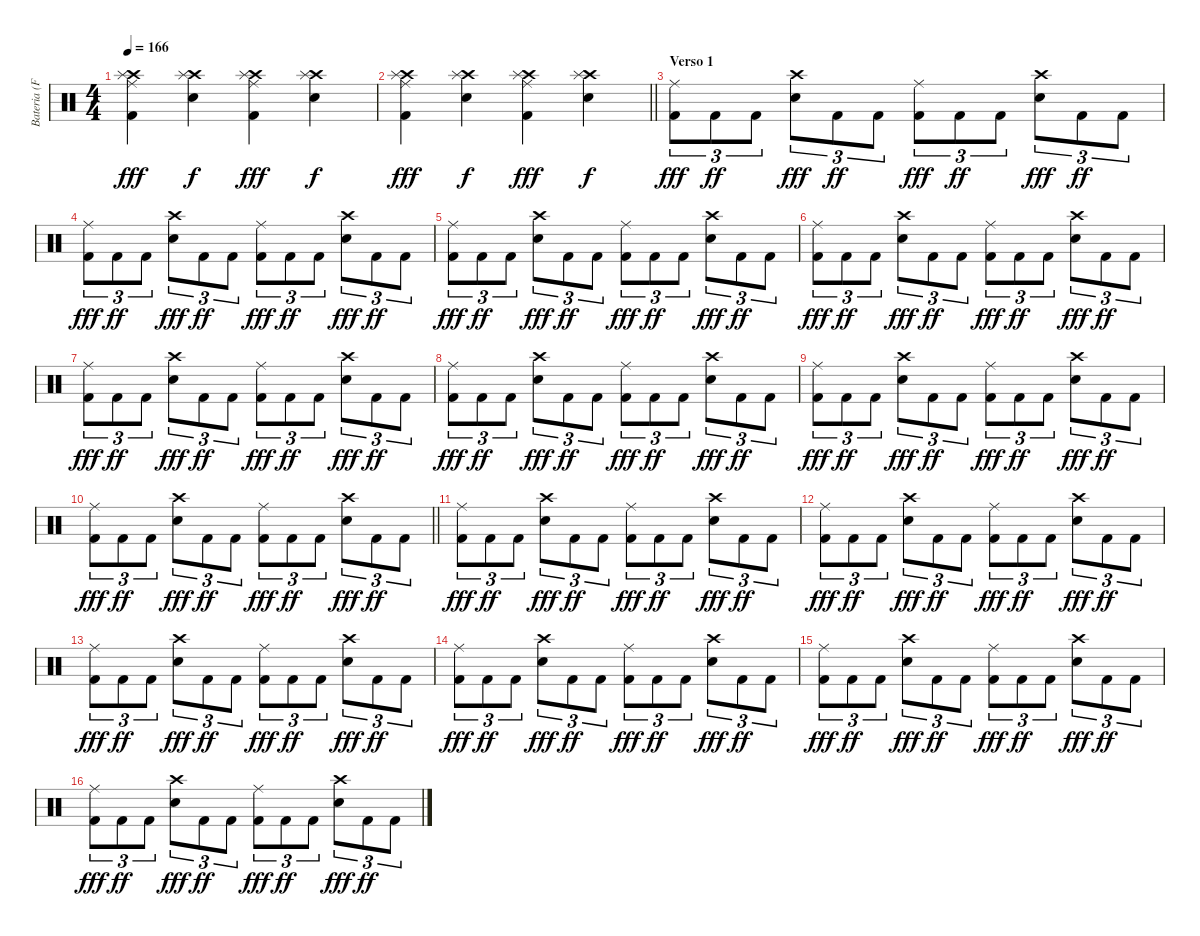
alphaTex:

\track ("Bateria (Fernando Scarcella)" "Bateria (F") {instrument percussion}
\staff {score}
\articulation defaults
\ts (4 4)
\tempo 166
\clef neutral
\ks c
("Crash high (hit)" "Splash (hit)" "Kick (hit) 2" "Ride (middle)").4{dy fff} ("Crash high (hit)" "Splash (hit)" "Snare (hit) 2").4{dy f} ("Crash high (hit)" "Splash (hit)" "Kick (hit) 2" "Ride (middle)").4{dy fff} ("Crash high (hit)" "Splash (hit)" "Snare (hit) 2").4{dy f} |
\barLineRight lightlight
("Crash high (hit)" "Splash (hit)" "Kick (hit) 2" "Ride (middle)").4{dy fff} ("Crash high (hit)" "Splash (hit)" "Snare (hit) 2").4{dy f} ("Crash high (hit)" "Splash (hit)" "Kick (hit) 2" "Ride (middle)").4{dy fff} ("Crash high (hit)" "Splash (hit)" "Snare (hit) 2").4{dy f} |
\section ("" "Verso 1")
("Kick (hit) 2" "Ride (middle)").8{tu (3 2) dy fff} "Kick (hit) 2".8{tu (3 2) dy ff} "Kick (hit) 2".8{tu (3 2)} ("Electric Snare (hit)" "Crash high (hit)").8{tu (3 2) dy fff} "Kick (hit) 2".8{tu (3 2) dy ff} "Kick (hit) 2".8{tu (3 2)} ("Kick (hit) 2" "Ride (middle)").8{tu (3 2) dy fff} "Kick (hit) 2".8{tu (3 2) dy ff} "Kick (hit) 2".8{tu (3 2)} ("Electric Snare (hit)" "Crash high (hit)").8{tu (3 2) dy fff} "Kick (hit) 2".8{tu (3 2) dy ff} "Kick (hit) 2".8{tu (3 2)} |
("Kick (hit) 2" "Ride (middle)").8{tu (3 2) dy fff} "Kick (hit) 2".8{tu (3 2) dy ff} "Kick (hit) 2".8{tu (3 2)} ("Electric Snare (hit)" "Crash high (hit)").8{tu (3 2) dy fff} "Kick (hit) 2".8{tu (3 2) dy ff} "Kick (hit) 2".8{tu (3 2)} ("Kick (hit) 2" "Ride (middle)").8{tu (3 2) dy fff} "Kick (hit) 2".8{tu (3 2) dy ff} "Kick (hit) 2".8{tu (3 2)} ("Electric Snare (hit)" "Crash high (hit)").8{tu (3 2) dy fff} "Kick (hit) 2".8{tu (3 2) dy ff} "Kick (hit) 2".8{tu (3 2)} |
("Kick (hit) 2" "Ride (middle)").8{tu (3 2) dy fff} "Kick (hit) 2".8{tu (3 2) dy ff} "Kick (hit) 2".8{tu (3 2)} ("Electric Snare (hit)" "Crash high (hit)").8{tu (3 2) dy fff} "Kick (hit) 2".8{tu (3 2) dy ff} "Kick (hit) 2".8{tu (3 2)} ("Kick (hit) 2" "Ride (middle)").8{tu (3 2) dy fff} "Kick (hit) 2".8{tu (3 2) dy ff} "Kick (hit) 2".8{tu (3 2)} ("Electric Snare (hit)" "Crash high (hit)").8{tu (3 2) dy fff} "Kick (hit) 2".8{tu (3 2) dy ff} "Kick (hit) 2".8{tu (3 2)} |
("Kick (hit) 2" "Ride (middle)").8{tu (3 2) dy fff} "Kick (hit) 2".8{tu (3 2) dy ff} "Kick (hit) 2".8{tu (3 2)} ("Electric Snare (hit)" "Crash high (hit)").8{tu (3 2) dy fff} "Kick (hit) 2".8{tu (3 2) dy ff} "Kick (hit) 2".8{tu (3 2)} ("Kick (hit) 2" "Ride (middle)").8{tu (3 2) dy fff} "Kick (hit) 2".8{tu (3 2) dy ff} "Kick (hit) 2".8{tu (3 2)} ("Electric Snare (hit)" "Crash high (hit)").8{tu (3 2) dy fff} "Kick (hit) 2".8{tu (3 2) dy ff} "Kick (hit) 2".8{tu (3 2)} |
("Kick (hit) 2" "Ride (middle)").8{tu (3 2) dy fff} "Kick (hit) 2".8{tu (3 2) dy ff} "Kick (hit) 2".8{tu (3 2)} ("Electric Snare (hit)" "Crash high (hit)").8{tu (3 2) dy fff} "Kick (hit) 2".8{tu (3 2) dy ff} "Kick (hit) 2".8{tu (3 2)} ("Kick (hit) 2" "Ride (middle)").8{tu (3 2) dy fff} "Kick (hit) 2".8{tu (3 2) dy ff} "Kick (hit) 2".8{tu (3 2)} ("Electric Snare (hit)" "Crash high (hit)").8{tu (3 2) dy fff} "Kick (hit) 2".8{tu (3 2) dy ff} "Kick (hit) 2".8{tu (3 2)} |
("Kick (hit) 2" "Ride (middle)").8{tu (3 2) dy fff} "Kick (hit) 2".8{tu (3 2) dy ff} "Kick (hit) 2".8{tu (3 2)} ("Electric Snare (hit)" "Crash high (hit)").8{tu (3 2) dy fff} "Kick (hit) 2".8{tu (3 2) dy ff} "Kick (hit) 2".8{tu (3 2)} ("Kick (hit) 2" "Ride (middle)").8{tu (3 2) dy fff} "Kick (hit) 2".8{tu (3 2) dy ff} "Kick (hit) 2".8{tu (3 2)} ("Electric Snare (hit)" "Crash high (hit)").8{tu (3 2) dy fff} "Kick (hit) 2".8{tu (3 2) dy ff} "Kick (hit) 2".8{tu (3 2)} |
("Kick (hit) 2" "Ride (middle)").8{tu (3 2) dy fff} "Kick (hit) 2".8{tu (3 2) dy ff} "Kick (hit) 2".8{tu (3 2)} ("Electric Snare (hit)" "Crash high (hit)").8{tu (3 2) dy fff} "Kick (hit) 2".8{tu (3 2) dy ff} "Kick (hit) 2".8{tu (3 2)} ("Kick (hit) 2" "Ride (middle)").8{tu (3 2) dy fff} "Kick (hit) 2".8{tu (3 2) dy ff} "Kick (hit) 2".8{tu (3 2)} ("Electric Snare (hit)" "Crash high (hit)").8{tu (3 2) dy fff} "Kick (hit) 2".8{tu (3 2) dy ff} "Kick (hit) 2".8{tu (3 2)} |
\barLineRight lightlight
("Kick (hit) 2" "Ride (middle)").8{tu (3 2) dy fff} "Kick (hit) 2".8{tu (3 2) dy ff} "Kick (hit) 2".8{tu (3 2)} ("Electric Snare (hit)" "Crash high (hit)").8{tu (3 2) dy fff} "Kick (hit) 2".8{tu (3 2) dy ff} "Kick (hit) 2".8{tu (3 2)} ("Kick (hit) 2" "Ride (middle)").8{tu (3 2) dy fff} "Kick (hit) 2".8{tu (3 2) dy ff} "Kick (hit) 2".8{tu (3 2)} ("Electric Snare (hit)" "Crash high (hit)").8{tu (3 2) dy fff} "Kick (hit) 2".8{tu (3 2) dy ff} "Kick (hit) 2".8{tu (3 2)} |
("Kick (hit) 2" "Ride (middle)").8{tu (3 2) dy fff} "Kick (hit) 2".8{tu (3 2) dy ff} "Kick (hit) 2".8{tu (3 2)} ("Electric Snare (hit)" "Crash high (hit)").8{tu (3 2) dy fff} "Kick (hit) 2".8{tu (3 2) dy ff} "Kick (hit) 2".8{tu (3 2)} ("Kick (hit) 2" "Ride (middle)").8{tu (3 2) dy fff} "Kick (hit) 2".8{tu (3 2) dy ff} "Kick (hit) 2".8{tu (3 2)} ("Electric Snare (hit)" "Crash high (hit)").8{tu (3 2) dy fff} "Kick (hit) 2".8{tu (3 2) dy ff} "Kick (hit) 2".8{tu (3 2)} |
("Kick (hit) 2" "Ride (middle)").8{tu (3 2) dy fff} "Kick (hit) 2".8{tu (3 2) dy ff} "Kick (hit) 2".8{tu (3 2)} ("Electric Snare (hit)" "Crash high (hit)").8{tu (3 2) dy fff} "Kick (hit) 2".8{tu (3 2) dy ff} "Kick (hit) 2".8{tu (3 2)} ("Kick (hit) 2" "Ride (middle)").8{tu (3 2) dy fff} "Kick (hit) 2".8{tu (3 2) dy ff} "Kick (hit) 2".8{tu (3 2)} ("Electric Snare (hit)" "Crash high (hit)").8{tu (3 2) dy fff} "Kick (hit) 2".8{tu (3 2) dy ff} "Kick (hit) 2".8{tu (3 2)} |
("Kick (hit) 2" "Ride (middle)").8{tu (3 2) dy fff} "Kick (hit) 2".8{tu (3 2) dy ff} "Kick (hit) 2".8{tu (3 2)} ("Electric Snare (hit)" "Crash high (hit)").8{tu (3 2) dy fff} "Kick (hit) 2".8{tu (3 2) dy ff} "Kick (hit) 2".8{tu (3 2)} ("Kick (hit) 2" "Ride (middle)").8{tu (3 2) dy fff} "Kick (hit) 2".8{tu (3 2) dy ff} "Kick (hit) 2".8{tu (3 2)} ("Electric Snare (hit)" "Crash high (hit)").8{tu (3 2) dy fff} "Kick (hit) 2".8{tu (3 2) dy ff} "Kick (hit) 2".8{tu (3 2)} |
("Kick (hit) 2" "Ride (middle)").8{tu (3 2) dy fff} "Kick (hit) 2".8{tu (3 2) dy ff} "Kick (hit) 2".8{tu (3 2)} ("Electric Snare (hit)" "Crash high (hit)").8{tu (3 2) dy fff} "Kick (hit) 2".8{tu (3 2) dy ff} "Kick (hit) 2".8{tu (3 2)} ("Kick (hit) 2" "Ride (middle)").8{tu (3 2) dy fff} "Kick (hit) 2".8{tu (3 2) dy ff} "Kick (hit) 2".8{tu (3 2)} ("Electric Snare (hit)" "Crash high (hit)").8{tu (3 2) dy fff} "Kick (hit) 2".8{tu (3 2) dy ff} "Kick (hit) 2".8{tu (3 2)} |
("Kick (hit) 2" "Ride (middle)").8{tu (3 2) dy fff} "Kick (hit) 2".8{tu (3 2) dy ff} "Kick (hit) 2".8{tu (3 2)} ("Electric Snare (hit)" "Crash high (hit)").8{tu (3 2) dy fff} "Kick (hit) 2".8{tu (3 2) dy ff} "Kick (hit) 2".8{tu (3 2)} ("Kick (hit) 2" "Ride (middle)").8{tu (3 2) dy fff} "Kick (hit) 2".8{tu (3 2) dy ff} "Kick (hit) 2".8{tu (3 2)} ("Electric Snare (hit)" "Crash high (hit)").8{tu (3 2) dy fff} "Kick (hit) 2".8{tu (3 2) dy ff} "Kick (hit) 2".8{tu (3 2)} |
("Kick (hit) 2" "Ride (middle)").8{tu (3 2) dy fff} "Kick (hit) 2".8{tu (3 2) dy ff} "Kick (hit) 2".8{tu (3 2)} ("Electric Snare (hit)" "Crash high (hit)").8{tu (3 2) dy fff} "Kick (hit) 2".8{tu (3 2) dy ff} "Kick (hit) 2".8{tu (3 2)} ("Kick (hit) 2" "Ride (middle)").8{tu (3 2) dy fff} "Kick (hit) 2".8{tu (3 2) dy ff} "Kick (hit) 2".8{tu (3 2)} ("Electric Snare (hit)" "Crash high (hit)").8{tu (3 2) dy fff} "Kick (hit) 2".8{tu (3 2) dy ff} "Kick (hit) 2".8{tu (3 2)}
